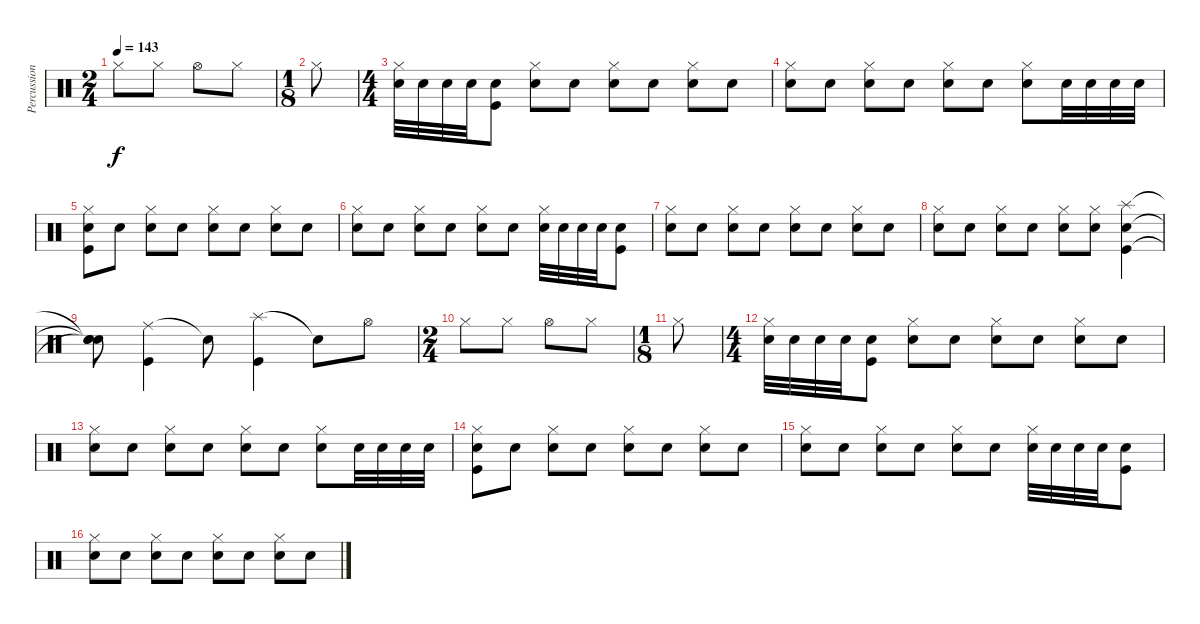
\track ("Percussion" "Percussion") {instrument percussion}
\staff {score}
\articulation defaults
\ts (2 4)
\tempo 143
\clef neutral
\ks c "Hi-Hat (closed)".8{dy f} "Hi-Hat (closed)".8 "Hi-Hat (open)".8 "Hi-Hat (closed)".8
|
\ts (1 8)
"Hi-Hat (closed)".8 |
\ts (4 4)
("Hi-Hat (closed)" "Electric Snare (hit)").32{volume 7} "Electric Snare (hit)".32 "Electric Snare (hit)".32 "Electric Snare (hit)".32 ("Electric Snare (hit)" "Kick (hit)").8{volume 10} ("Hi-Hat (closed)" "Electric Snare (hit)").8{volume 8} "Electric Snare (hit)".8 ("Hi-Hat (closed)" "Electric Snare (hit)").8 "Electric Snare (hit)".8{volume 10} ("Hi-Hat (closed)" "Electric Snare (hit)").8{volume 8} "Electric Snare (hit)".8 |
("Hi-Hat (closed)" "Electric Snare (hit)").8 "Electric Snare (hit)".8 ("Hi-Hat (closed)" "Electric Snare (hit)").8{volume 10} "Electric Snare (hit)".8{volume 8} ("Hi-Hat (closed)" "Electric Snare (hit)").8 "Electric Snare (hit)".8{volume 10} ("Hi-Hat (closed)" "Electric Snare (hit)").8{volume 8} "Electric Snare (hit)".32{volume 7} "Electric Snare (hit)".32 "Electric Snare (hit)".32 "Electric Snare (hit)".32 |
("Hi-Hat (closed)" "Electric Snare (hit)" "Kick (hit)").8{volume 10} "Electric Snare (hit)".8{volume 8} ("Hi-Hat (closed)" "Electric Snare (hit)").8 "Electric Snare (hit)".8 ("Hi-Hat (closed)" "Electric Snare (hit)").8{volume 10} "Electric Snare (hit)".8{volume 8} ("Hi-Hat (closed)" "Electric Snare (hit)").8 "Electric Snare (hit)".8 |
("Hi-Hat (closed)" "Electric Snare (hit)").8 "Electric Snare (hit)".8{volume 10} ("Hi-Hat (closed)" "Electric Snare (hit)").8{volume 8} "Electric Snare (hit)".8 ("Hi-Hat (closed)" "Electric Snare (hit)").8{volume 10} "Electric Snare (hit)".8{volume 8} ("Hi-Hat (closed)" "Electric Snare (hit)").32{volume 7} "Electric Snare (hit)".32 "Electric Snare (hit)".32 "Electric Snare (hit)".32 ("Electric Snare (hit)" "Kick (hit)").8 |
("Hi-Hat (closed)" "Electric Snare (hit)").8{volume 8} "Electric Snare (hit)".8 ("Hi-Hat (closed)" "Electric Snare (hit)").8 "Electric Snare (hit)".8{volume 10} ("Hi-Hat (closed)" "Electric Snare (hit)").8{volume 8} "Electric Snare (hit)".8 ("Hi-Hat (closed)" "Electric Snare (hit)").8 "Electric Snare (hit)".8 |
("Hi-Hat (closed)" "Electric Snare (hit)").8{volume 10} "Electric Snare (hit)".8{volume 8} ("Hi-Hat (closed)" "Electric Snare (hit)").8 "Electric Snare (hit)".8{volume 10} ("Hi-Hat (closed)" "Electric Snare (hit)").8{volume 8} ("Hi-Hat (closed)" "Electric Snare (hit)").8{volume 10} ("Splash (hit)" "Electric Snare (hit)" "Kick (hit)").4 |
("Snare (hit)"{t} "Snare (hit)"{t} "Snare (hit)"{t}).8 ("Ride (middle)" "Kick (hit)").4 "Snare (hit)"{t}.8 ("Splash (hit)" "Kick (hit)").4 "Snare (hit)"{t}.8 "Hi-Hat (open)".8 |
\ts (2 4)
"Hi-Hat (closed)".8 "Hi-Hat (closed)".8 "Hi-Hat (open)".8 "Hi-Hat (closed)".8 |
\ts (1 8)
"Hi-Hat (closed)".8 |
\ts (4 4)
("Hi-Hat (closed)" "Electric Snare (hit)").32{volume 7} "Electric Snare (hit)".32 "Electric Snare (hit)".32 "Electric Snare (hit)".32 ("Electric Snare (hit)" "Kick (hit)").8{volume 10} ("Hi-Hat (closed)" "Electric Snare (hit)").8{volume 8} "Electric Snare (hit)".8 ("Hi-Hat (closed)" "Electric Snare (hit)").8 "Electric Snare (hit)".8{volume 10} ("Hi-Hat (closed)" "Electric Snare (hit)").8{volume 8} "Electric Snare (hit)".8 |
("Hi-Hat (closed)" "Electric Snare (hit)").8 "Electric Snare (hit)".8 ("Hi-Hat (closed)" "Electric Snare (hit)").8{volume 10} "Electric Snare (hit)".8{volume 8} ("Hi-Hat (closed)" "Electric Snare (hit)").8 "Electric Snare (hit)".8{volume 10} ("Hi-Hat (closed)" "Electric Snare (hit)").8{volume 8} "Electric Snare (hit)".32{volume 7} "Electric Snare (hit)".32 "Electric Snare (hit)".32 "Electric Snare (hit)".32 |
("Hi-Hat (closed)" "Electric Snare (hit)" "Kick (hit)").8{volume 10} "Electric Snare (hit)".8{volume 8} ("Hi-Hat (closed)" "Electric Snare (hit)").8 "Electric Snare (hit)".8 ("Hi-Hat (closed)" "Electric Snare (hit)").8{volume 10} "Electric Snare (hit)".8{volume 8} ("Hi-Hat (closed)" "Electric Snare (hit)").8 "Electric Snare (hit)".8 |
("Hi-Hat (closed)" "Electric Snare (hit)").8 "Electric Snare (hit)".8{volume 10} ("Hi-Hat (closed)" "Electric Snare (hit)").8{volume 8} "Electric Snare (hit)".8 ("Hi-Hat (closed)" "Electric Snare (hit)").8{volume 10} "Electric Snare (hit)".8{volume 8} ("Hi-Hat (closed)" "Electric Snare (hit)").32{volume 7} "Electric Snare (hit)".32 "Electric Snare (hit)".32 "Electric Snare (hit)".32 ("Electric Snare (hit)" "Kick (hit)").8 |
("Hi-Hat (closed)" "Electric Snare (hit)").8{volume 8} "Electric Snare (hit)".8 ("Hi-Hat (closed)" "Electric Snare (hit)").8 "Electric Snare (hit)".8{volume 10} ("Hi-Hat (closed)" "Electric Snare (hit)").8{volume 8} "Electric Snare (hit)".8 ("Hi-Hat (closed)" "Electric Snare (hit)").8 "Electric Snare (hit)".8
